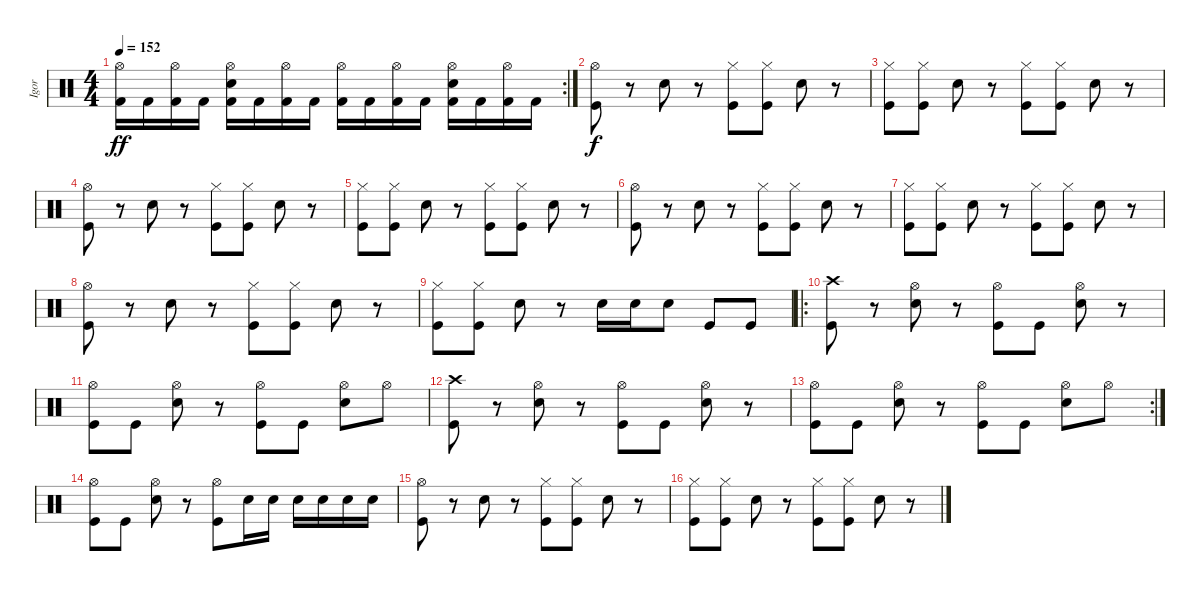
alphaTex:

\track ("Igor" "Igor") {instrument percussion}
\staff {score}
\articulation defaults
\rc 2
\ts (4 4)
\tempo 152
\clef neutral
\ks c
("Hi-Hat (open)" "Kick (hit) 2").16{dy ff} "Kick (hit) 2".16 ("Hi-Hat (open)" "Kick (hit) 2").16 "Kick (hit) 2".16 ("Hi-Hat (open)" "Snare (hit) 2" "Kick (hit) 2").16 "Kick (hit) 2".16 ("Hi-Hat (open)" "Kick (hit) 2").16 "Kick (hit) 2".16 ("Hi-Hat (open)" "Kick (hit) 2").16 "Kick (hit) 2".16 ("Hi-Hat (open)" "Kick (hit) 2").16 "Kick (hit) 2".16 ("Hi-Hat (open)" "Snare (hit) 2" "Kick (hit) 2").16 "Kick (hit) 2".16 ("Hi-Hat (open)" "Kick (hit) 2").16 "Kick (hit) 2".16 |
("Hi-Hat (open)" "Kick (hit)").8{dy f} r.8 "Snare (hit) 2".8 r.8 ("Hi-Hat (closed)" "Kick (hit)").8 ("Hi-Hat (closed)" "Kick (hit)").8 "Snare (hit) 2".8 r.8 |
("Hi-Hat (closed)" "Kick (hit)").8 ("Hi-Hat (closed)" "Kick (hit)").8 "Snare (hit) 2".8 r.8 ("Hi-Hat (closed)" "Kick (hit)").8 ("Hi-Hat (closed)" "Kick (hit)").8 "Snare (hit) 2".8 r.8 |
("Hi-Hat (open)" "Kick (hit)").8 r.8 "Snare (hit) 2".8 r.8 ("Hi-Hat (closed)" "Kick (hit)").8 ("Hi-Hat (closed)" "Kick (hit)").8 "Snare (hit) 2".8 r.8 |
("Hi-Hat (closed)" "Kick (hit)").8 ("Hi-Hat (closed)" "Kick (hit)").8 "Snare (hit) 2".8 r.8 ("Hi-Hat (closed)" "Kick (hit)").8 ("Hi-Hat (closed)" "Kick (hit)").8 "Snare (hit) 2".8 r.8 |
("Hi-Hat (open)" "Kick (hit)").8 r.8 "Snare (hit) 2".8 r.8 ("Hi-Hat (closed)" "Kick (hit)").8 ("Hi-Hat (closed)" "Kick (hit)").8 "Snare (hit) 2".8 r.8 |
("Hi-Hat (closed)" "Kick (hit)").8 ("Hi-Hat (closed)" "Kick (hit)").8 "Snare (hit) 2".8 r.8 ("Hi-Hat (closed)" "Kick (hit)").8 ("Hi-Hat (closed)" "Kick (hit)").8 "Snare (hit) 2".8 r.8 |
("Hi-Hat (open)" "Kick (hit)").8 r.8 "Snare (hit) 2".8 r.8 ("Hi-Hat (closed)" "Kick (hit)").8 ("Hi-Hat (closed)" "Kick (hit)").8 "Snare (hit) 2".8 r.8 |
("Hi-Hat (closed)" "Kick (hit)").8 ("Hi-Hat (closed)" "Kick (hit)").8 "Snare (hit) 2".8 r.8 "Snare (hit) 2".16 "Snare (hit) 2".16 "Snare (hit) 2".8 "Kick (hit)".8 "Kick (hit)".8 |
\ro
("Crash high (hit)" "Kick (hit)").8 r.8 ("Hi-Hat (open)" "Snare (hit) 2").8 r.8 ("Hi-Hat (open)" "Kick (hit)").8 "Kick (hit)".8 ("Hi-Hat (open)" "Snare (hit) 2").8 r.8 |
("Hi-Hat (open)" "Kick (hit)").8 "Kick (hit)".8 ("Hi-Hat (open)" "Snare (hit) 2").8 r.8 ("Hi-Hat (open)" "Kick (hit)").8 "Kick (hit)".8 ("Hi-Hat (open)" "Snare (hit) 2").8 "Hi-Hat (open)".8 |
("Crash high (hit)" "Kick (hit)").8 r.8 ("Hi-Hat (open)" "Snare (hit) 2").8 r.8 ("Hi-Hat (open)" "Kick (hit)").8 "Kick (hit)".8 ("Hi-Hat (open)" "Snare (hit) 2").8 r.8 |
\rc 2
("Hi-Hat (open)" "Kick (hit)").8 "Kick (hit)".8 ("Hi-Hat (open)" "Snare (hit) 2").8 r.8 ("Hi-Hat (open)" "Kick (hit)").8 "Kick (hit)".8 ("Hi-Hat (open)" "Snare (hit) 2").8 "Hi-Hat (open)".8 |
("Hi-Hat (open)" "Kick (hit)").8 "Kick (hit)".8 ("Hi-Hat (open)" "Snare (hit) 2").8 r.8 ("Hi-Hat (open)" "Kick (hit)").8 "Snare (hit) 2".16 "Snare (hit) 2".16 "Snare (hit) 2".16 "Snare (hit) 2".16 "Snare (hit) 2".16 "Snare (hit) 2".16 |
("Hi-Hat (open)" "Kick (hit)").8 r.8 "Snare (hit) 2".8 r.8 ("Hi-Hat (closed)" "Kick (hit)").8 ("Hi-Hat (closed)" "Kick (hit)").8 "Snare (hit) 2".8 r.8 |
("Hi-Hat (closed)" "Kick (hit)").8 ("Hi-Hat (closed)" "Kick (hit)").8 "Snare (hit) 2".8 r.8 ("Hi-Hat (closed)" "Kick (hit)").8 ("Hi-Hat (closed)" "Kick (hit)").8 "Snare (hit) 2".8 r.8
